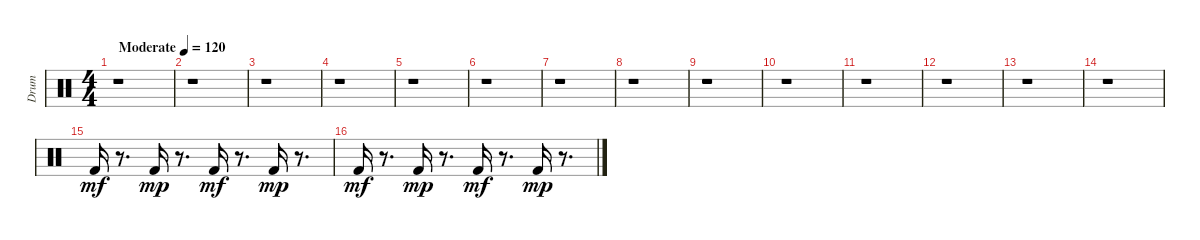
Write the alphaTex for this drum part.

\track ("Drum" "Drum") {instrument percussion}
\staff {score}
\articulation defaults
\ts (4 4)
\tempo (120 "Moderate")
\clef neutral
\ks c
r.1{dy mf} |
r.1 |
r.1 |
r.1 |
r.1 |
r.1 |
r.1 |
r.1 |
r.1 |
r.1 |
r.1 |
r.1 |
r.1 |
r.1 |
"Kick (hit) 2".16 r.8{d} "Kick (hit) 2".16{dy mp} r.8{d} "Kick (hit) 2".16{dy mf} r.8{d} "Kick (hit) 2".16{dy mp} r.8{d} |
"Kick (hit) 2".16{dy mf} r.8{d} "Kick (hit) 2".16{dy mp} r.8{d} "Kick (hit) 2".16{dy mf} r.8{d} "Kick (hit) 2".16{dy mp} r.8{d}
